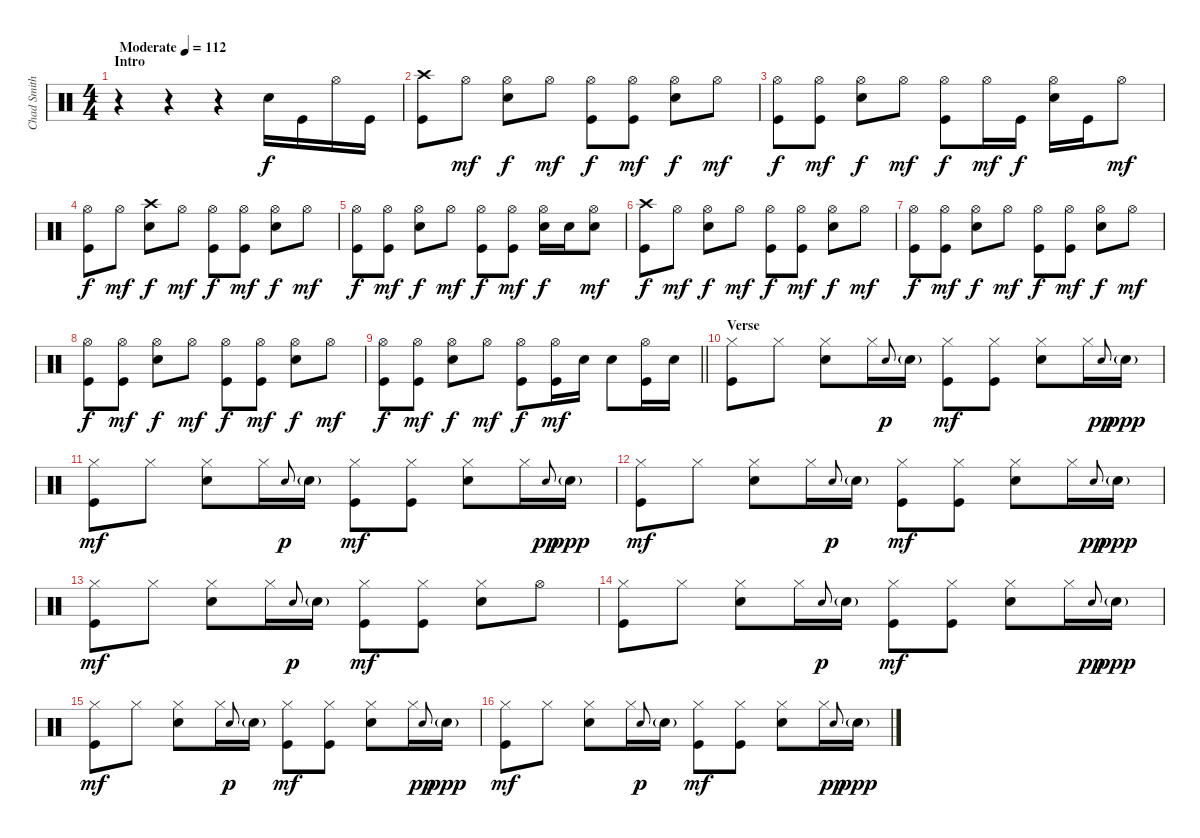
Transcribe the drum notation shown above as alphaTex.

\track ("Chad Smith" "Chad Smith") {instrument percussion}
\staff {score}
\articulation defaults
\ts (4 4)
\section ("" "Intro")
\tempo (112 "Moderate")
\clef neutral
\ks c
r.4{dy f} r.4 r.4 "Snare (hit) 2".16 "Kick (hit)".16 "Hi-Hat (open)".16 "Kick (hit)".16 |
("Crash high (hit)" "Kick (hit)").8 "Hi-Hat (open)".8{dy mf} ("Hi-Hat (open)" "Snare (hit) 2").8{dy f} "Hi-Hat (open)".8{dy mf} ("Kick (hit)" "Hi-Hat (open)").8{dy f} ("Kick (hit)" "Hi-Hat (open)").8{dy mf} ("Hi-Hat (open)" "Snare (hit) 2").8{dy f} "Hi-Hat (open)".8{dy mf} |
("Kick (hit)" "Hi-Hat (open)").8{dy f} ("Kick (hit)" "Hi-Hat (open)").8{dy mf} ("Hi-Hat (open)" "Snare (hit) 2").8{dy f} "Hi-Hat (open)".8{dy mf} ("Hi-Hat (open)" "Kick (hit)").8{dy f} "Hi-Hat (open)".16{dy mf} "Kick (hit)".16{dy f} ("Hi-Hat (open)" "Snare (hit) 2").16 "Kick (hit)".16 "Hi-Hat (open)".8{dy mf} |
("Hi-Hat (open)" "Kick (hit)").8{dy f} "Hi-Hat (open)".8{dy mf} ("Crash high (hit)" "Snare (hit) 2").8{dy f} "Hi-Hat (open)".8{dy mf} ("Kick (hit)" "Hi-Hat (open)").8{dy f} ("Kick (hit)" "Hi-Hat (open)").8{dy mf} ("Hi-Hat (open)" "Snare (hit) 2").8{dy f} "Hi-Hat (open)".8{dy mf} |
("Kick (hit)" "Hi-Hat (open)").8{dy f} ("Kick (hit)" "Hi-Hat (open)").8{dy mf} ("Hi-Hat (open)" "Snare (hit) 2").8{dy f} "Hi-Hat (open)".8{dy mf} ("Hi-Hat (open)" "Kick (hit)").8{dy f} ("Kick (hit)" "Hi-Hat (open)").8{dy mf} ("Hi-Hat (open)" "Snare (hit) 2").16{dy f} "Snare (hit) 2".16 ("Hi-Hat (open)" "Snare (hit) 2").8{dy mf} |
("Crash high (hit)" "Kick (hit)").8{dy f} "Hi-Hat (open)".8{dy mf} ("Hi-Hat (open)" "Snare (hit) 2").8{dy f} "Hi-Hat (open)".8{dy mf} ("Kick (hit)" "Hi-Hat (open)").8{dy f} ("Kick (hit)" "Hi-Hat (open)").8{dy mf} ("Hi-Hat (open)" "Snare (hit) 2").8{dy f} "Hi-Hat (open)".8{dy mf} |
("Hi-Hat (open)" "Kick (hit)").8{dy f} ("Hi-Hat (open)" "Kick (hit)").8{dy mf} ("Hi-Hat (open)" "Snare (hit) 2").8{dy f} "Hi-Hat (open)".8{dy mf} ("Kick (hit)" "Hi-Hat (open)").8{dy f} ("Kick (hit)" "Hi-Hat (open)").8{dy mf} ("Hi-Hat (open)" "Snare (hit) 2").8{dy f} "Hi-Hat (open)".8{dy mf} |
("Hi-Hat (open)" "Kick (hit)").8{dy f} ("Hi-Hat (open)" "Kick (hit)").8{dy mf} ("Hi-Hat (open)" "Snare (hit) 2").8{dy f} "Hi-Hat (open)".8{dy mf} ("Kick (hit)" "Hi-Hat (open)").8{dy f} ("Kick (hit)" "Hi-Hat (open)").8{dy mf} ("Hi-Hat (open)" "Snare (hit) 2").8{dy f} "Hi-Hat (open)".8{dy mf} |
\barLineRight lightlight
("Hi-Hat (open)" "Kick (hit)").8{dy f} ("Hi-Hat (open)" "Kick (hit)").8{dy mf} ("Hi-Hat (open)" "Snare (hit) 2").8{dy f} "Hi-Hat (open)".8{dy mf} ("Kick (hit)" "Hi-Hat (open)").8{dy f} ("Kick (hit)" "Hi-Hat (open)").16{dy mf} "Snare (hit) 2".16 "Snare (hit) 2".8 ("Hi-Hat (open)" "Kick (hit)").16 "Snare (hit) 2".16 |
\section ("" "Verse ")
("Hi-Hat (closed)" "Kick (hit)").8 "Hi-Hat (closed)".8 ("Hi-Hat (closed)" "Snare (hit) 2").8 "Hi-Hat (closed)".16 "Snare (hit) 2".8{gr onbeat dy p} "Snare (hit) 2"{g}.16 ("Hi-Hat (closed)" "Kick (hit)").8{dy mf} ("Hi-Hat (closed)" "Kick (hit)").8 ("Hi-Hat (closed)" "Snare (hit) 2").8 "Hi-Hat (closed)".16 "Snare (hit) 2".8{gr onbeat dy pp} "Snare (hit) 2"{g}.16{dy ppp} |
("Hi-Hat (closed)" "Kick (hit)").8{dy mf} "Hi-Hat (closed)".8 ("Hi-Hat (closed)" "Snare (hit) 2").8 "Hi-Hat (closed)".16 "Snare (hit) 2".8{gr onbeat dy p} "Snare (hit) 2"{g}.16 ("Hi-Hat (closed)" "Kick (hit)").8{dy mf} ("Hi-Hat (closed)" "Kick (hit)").8 ("Hi-Hat (closed)" "Snare (hit) 2").8 "Hi-Hat (closed)".16 "Snare (hit) 2".8{gr onbeat dy pp} "Snare (hit) 2"{g}.16{dy ppp} |
("Hi-Hat (closed)" "Kick (hit)").8{dy mf} "Hi-Hat (closed)".8 ("Hi-Hat (closed)" "Snare (hit) 2").8 "Hi-Hat (closed)".16 "Snare (hit) 2".8{gr onbeat dy p} "Snare (hit) 2"{g}.16 ("Hi-Hat (closed)" "Kick (hit)").8{dy mf} ("Hi-Hat (closed)" "Kick (hit)").8 ("Hi-Hat (closed)" "Snare (hit) 2").8 "Hi-Hat (closed)".16 "Snare (hit) 2".8{gr onbeat dy pp} "Snare (hit) 2"{g}.16{dy ppp} |
("Hi-Hat (closed)" "Kick (hit)").8{dy mf} "Hi-Hat (closed)".8 ("Hi-Hat (closed)" "Snare (hit) 2").8 "Hi-Hat (closed)".16 "Snare (hit) 2".8{gr onbeat dy p} "Snare (hit) 2"{g}.16 ("Hi-Hat (closed)" "Kick (hit)").8{dy mf} ("Hi-Hat (closed)" "Kick (hit)").8 ("Hi-Hat (closed)" "Snare (hit) 2").8 "Hi-Hat (open)".8 |
("Hi-Hat (closed)" "Kick (hit)").8 "Hi-Hat (closed)".8 ("Hi-Hat (closed)" "Snare (hit) 2").8 "Hi-Hat (closed)".16 "Snare (hit) 2".8{gr onbeat dy p} "Snare (hit) 2"{g}.16 ("Hi-Hat (closed)" "Kick (hit)").8{dy mf} ("Hi-Hat (closed)" "Kick (hit)").8 ("Hi-Hat (closed)" "Snare (hit) 2").8 "Hi-Hat (closed)".16 "Snare (hit) 2".8{gr onbeat dy pp} "Snare (hit) 2"{g}.16{dy ppp} |
("Hi-Hat (closed)" "Kick (hit)").8{dy mf} "Hi-Hat (closed)".8 ("Hi-Hat (closed)" "Snare (hit) 2").8 "Hi-Hat (closed)".16 "Snare (hit) 2".8{gr onbeat dy p} "Snare (hit) 2"{g}.16 ("Hi-Hat (closed)" "Kick (hit)").8{dy mf} ("Hi-Hat (closed)" "Kick (hit)").8 ("Hi-Hat (closed)" "Snare (hit) 2").8 "Hi-Hat (closed)".16 "Snare (hit) 2".8{gr onbeat dy pp} "Snare (hit) 2"{g}.16{dy ppp} |
("Hi-Hat (closed)" "Kick (hit)").8{dy mf} "Hi-Hat (closed)".8 ("Hi-Hat (closed)" "Snare (hit) 2").8 "Hi-Hat (closed)".16 "Snare (hit) 2".8{gr onbeat dy p} "Snare (hit) 2"{g}.16 ("Hi-Hat (closed)" "Kick (hit)").8{dy mf} ("Hi-Hat (closed)" "Kick (hit)").8 ("Hi-Hat (closed)" "Snare (hit) 2").8 "Hi-Hat (closed)".16 "Snare (hit) 2".8{gr onbeat dy pp} "Snare (hit) 2"{g}.16{dy ppp}
